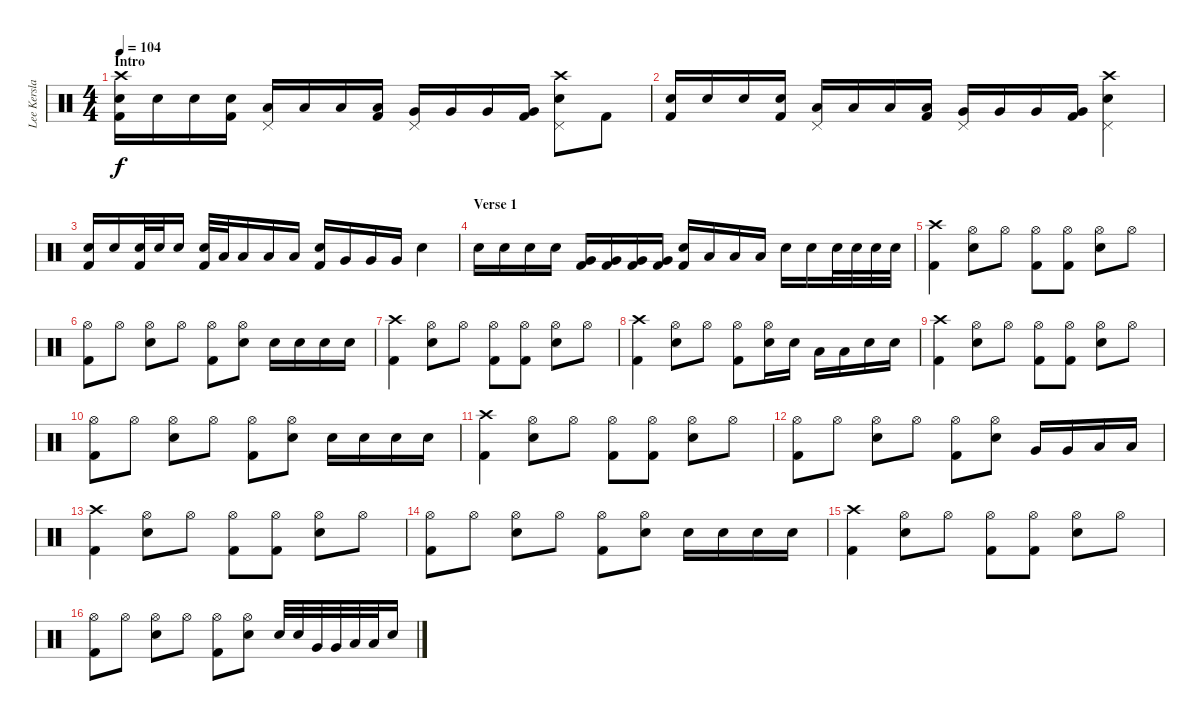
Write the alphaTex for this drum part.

\track ("Lee Kerslake" "Lee Kersla") {instrument percussion}
\staff {score}
\articulation defaults
\ts (4 4)
\section ("" "Intro")
\tempo 104
\clef neutral
\ks c
("Crash high (hit)" "Electric Snare (hit)" "Kick (hit) 2").16{dy f} "Electric Snare (hit)".16 "Electric Snare (hit)".16 ("Electric Snare (hit)" "Kick (hit) 2").16 ("Low Tom (hit)" "Pedal Hi-Hat (hit)").16 "Low Tom (hit)".16 "Low Tom (hit)".16 ("Low Tom (hit)" "Kick (hit) 2").16 ("Very Low Tom (hit)" "Pedal Hi-Hat (hit)").16 "Very Low Tom (hit)".16 "Very Low Tom (hit)".16 ("Very Low Tom (hit)" "Kick (hit) 2").16 ("Crash high (hit)" "Electric Snare (hit)" "Pedal Hi-Hat (hit)").8 "Kick (hit) 2".8 |
("Electric Snare (hit)" "Kick (hit) 2").16 "Electric Snare (hit)".16 "Electric Snare (hit)".16 ("Electric Snare (hit)" "Kick (hit) 2").16 ("Low Tom (hit)" "Pedal Hi-Hat (hit)").16 "Low Tom (hit)".16 "Low Tom (hit)".16 ("Low Tom (hit)" "Kick (hit) 2").16 ("Very Low Tom (hit)" "Pedal Hi-Hat (hit)").16 "Very Low Tom (hit)".16 "Very Low Tom (hit)".16 ("Very Low Tom (hit)" "Kick (hit) 2").16 ("Crash high (hit)" "Electric Snare (hit)" "Pedal Hi-Hat (hit)").4 |
("Electric Snare (hit)" "Kick (hit) 2").16 "Electric Snare (hit)".16 ("Electric Snare (hit)" "Kick (hit) 2").32 "Electric Snare (hit)".32 "Electric Snare (hit)".16 ("Electric Snare (hit)" "Kick (hit) 2").32 "Low Tom (hit)".32 "Low Tom (hit)".16 "Low Tom (hit)".16 "Low Tom (hit)".16 ("Electric Snare (hit)" "Kick (hit) 2").16 "Very Low Tom (hit)".16 "Very Low Tom (hit)".16 "Very Low Tom (hit)".16 "Electric Snare (hit)".4 |
\section ("" "Verse 1")
"Electric Snare (hit)".16 "Electric Snare (hit)".16 "Electric Snare (hit)".16 "Electric Snare (hit)".16 ("Very Low Tom (hit)" "Kick (hit) 2").16 ("Very Low Tom (hit)" "Kick (hit) 2").16 ("Very Low Tom (hit)" "Kick (hit) 2").16 ("Very Low Tom (hit)" "Kick (hit) 2").16 ("Electric Snare (hit)" "Kick (hit) 2").16 "Low Floor Tom (hit)".16 "Low Floor Tom (hit)".16 "Low Floor Tom (hit)".16 "Electric Snare (hit)".16 "Electric Snare (hit)".16 "Electric Snare (hit)".32 "Electric Snare (hit)".32 "Electric Snare (hit)".32 "Electric Snare (hit)".32 |
("Crash high (hit)" "Kick (hit) 2").4 ("Hi-Hat (open)" "Electric Snare (hit)").8 "Hi-Hat (open)".8 ("Hi-Hat (open)" "Kick (hit) 2").8 ("Hi-Hat (open)" "Kick (hit) 2").8 ("Hi-Hat (open)" "Electric Snare (hit)").8 "Hi-Hat (open)".8 |
("Hi-Hat (open)" "Kick (hit) 2").8 "Hi-Hat (open)".8 ("Hi-Hat (open)" "Electric Snare (hit)").8 "Hi-Hat (open)".8 ("Hi-Hat (open)" "Kick (hit) 2").8 ("Hi-Hat (open)" "Electric Snare (hit)").8 "Electric Snare (hit)".16 "Electric Snare (hit)".16 "Electric Snare (hit)".16 "Electric Snare (hit)".16 |
("Crash high (hit)" "Kick (hit) 2").4 ("Hi-Hat (open)" "Electric Snare (hit)").8 "Hi-Hat (open)".8 ("Hi-Hat (open)" "Kick (hit) 2").8 ("Hi-Hat (open)" "Kick (hit) 2").8 ("Hi-Hat (open)" "Electric Snare (hit)").8 "Hi-Hat (open)".8 |
("Crash high (hit)" "Kick (hit) 2").4 ("Hi-Hat (open)" "Electric Snare (hit)").8 "Hi-Hat (open)".8 ("Hi-Hat (open)" "Kick (hit) 2").8 ("Hi-Hat (open)" "Electric Snare (hit)").16 "Electric Snare (hit)".16 "Low Floor Tom (hit)".16 "Low Floor Tom (hit)".16 "Electric Snare (hit)".16 "Electric Snare (hit)".16 |
("Crash high (hit)" "Kick (hit) 2").4 ("Hi-Hat (open)" "Electric Snare (hit)").8 "Hi-Hat (open)".8 ("Hi-Hat (open)" "Kick (hit) 2").8 ("Hi-Hat (open)" "Kick (hit) 2").8 ("Hi-Hat (open)" "Electric Snare (hit)").8 "Hi-Hat (open)".8 |
("Hi-Hat (open)" "Kick (hit) 2").8 "Hi-Hat (open)".8 ("Hi-Hat (open)" "Electric Snare (hit)").8 "Hi-Hat (open)".8 ("Hi-Hat (open)" "Kick (hit) 2").8 ("Hi-Hat (open)" "Electric Snare (hit)").8 "Electric Snare (hit)".16 "Electric Snare (hit)".16 "Electric Snare (hit)".16 "Electric Snare (hit)".16 |
("Crash high (hit)" "Kick (hit) 2").4 ("Hi-Hat (open)" "Electric Snare (hit)").8 "Hi-Hat (open)".8 ("Hi-Hat (open)" "Kick (hit) 2").8 ("Hi-Hat (open)" "Kick (hit) 2").8 ("Hi-Hat (open)" "Electric Snare (hit)").8 "Hi-Hat (open)".8 |
("Hi-Hat (open)" "Kick (hit) 2").8 "Hi-Hat (open)".8 ("Hi-Hat (open)" "Electric Snare (hit)").8 "Hi-Hat (open)".8 ("Hi-Hat (open)" "Kick (hit) 2").8 ("Hi-Hat (open)" "Electric Snare (hit)").8 "Very Low Tom (hit)".16 "Very Low Tom (hit)".16 "Low Floor Tom (hit)".16 "Low Floor Tom (hit)".16 |
("Crash high (hit)" "Kick (hit) 2").4 ("Hi-Hat (open)" "Electric Snare (hit)").8 "Hi-Hat (open)".8 ("Hi-Hat (open)" "Kick (hit) 2").8 ("Hi-Hat (open)" "Kick (hit) 2").8 ("Hi-Hat (open)" "Electric Snare (hit)").8 "Hi-Hat (open)".8 |
("Hi-Hat (open)" "Kick (hit) 2").8 "Hi-Hat (open)".8 ("Hi-Hat (open)" "Electric Snare (hit)").8 "Hi-Hat (open)".8 ("Hi-Hat (open)" "Kick (hit) 2").8 ("Hi-Hat (open)" "Electric Snare (hit)").8 "Electric Snare (hit)".16 "Electric Snare (hit)".16 "Electric Snare (hit)".16 "Electric Snare (hit)".16 |
("Crash high (hit)" "Kick (hit) 2").4 ("Hi-Hat (open)" "Electric Snare (hit)").8 "Hi-Hat (open)".8 ("Hi-Hat (open)" "Kick (hit) 2").8 ("Hi-Hat (open)" "Kick (hit) 2").8 ("Hi-Hat (open)" "Electric Snare (hit)").8 "Hi-Hat (open)".8 |
("Hi-Hat (open)" "Kick (hit) 2").8 "Hi-Hat (open)".8 ("Hi-Hat (open)" "Electric Snare (hit)").8 "Hi-Hat (open)".8 ("Hi-Hat (open)" "Kick (hit) 2").8 ("Hi-Hat (open)" "Electric Snare (hit)").8 "Electric Snare (hit)".32 "Electric Snare (hit)".32 "Very Low Tom (hit)".32 "Very Low Tom (hit)".32 "Low Floor Tom (hit)".32 "Low Floor Tom (hit)".32 "Electric Snare (hit)".16
